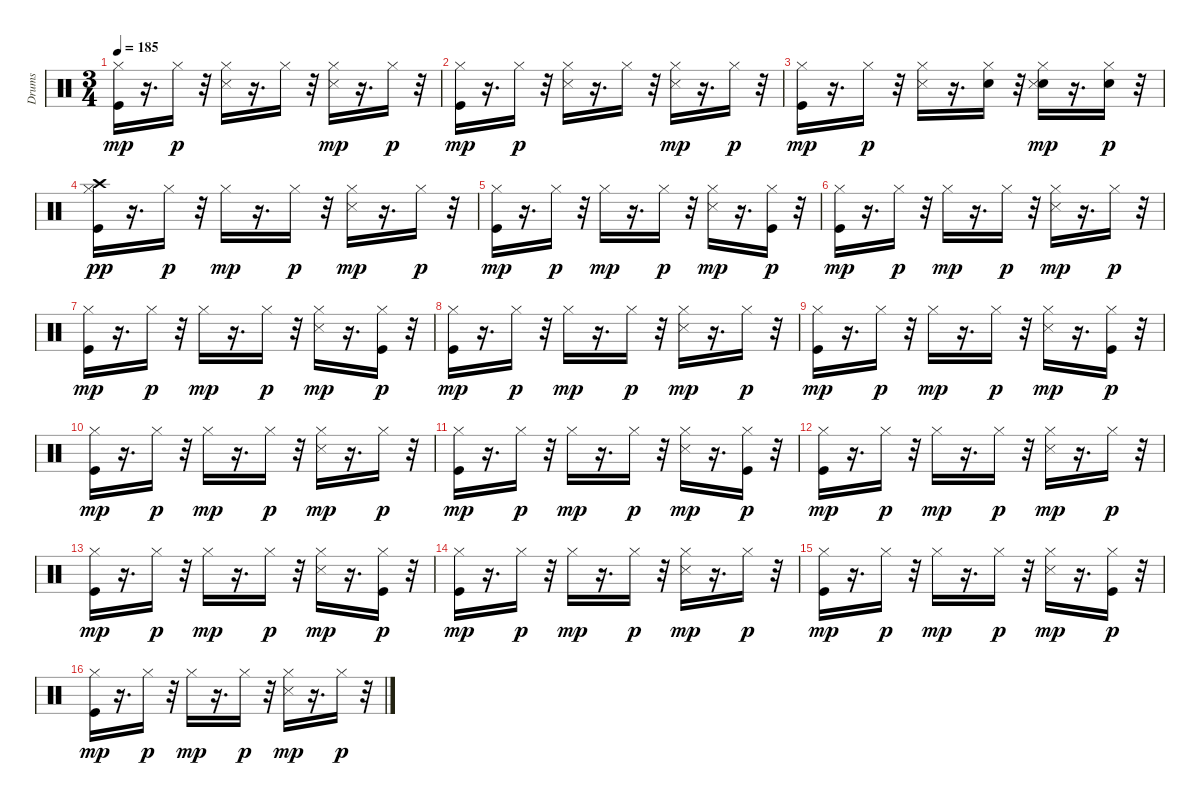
\track ("Drums " "Drums ") {instrument percussion}
\staff {score}
\articulation defaults
\ts (3 4)
\tempo 185
\clef neutral
\ks c
("Kick (hit)" "Hi-Hat (closed)").16{dy mp} r.16{d} "Hi-Hat (closed)".16{dy p} r.32 ("Hi-Hat (closed)" "Snare (side stick) 3").16 r.16{d} "Hi-Hat (closed)".16 r.32 ("Hi-Hat (closed)" "Snare (side stick) 3").16{dy mp} r.16{d} "Hi-Hat (closed)".16{dy p} r.32 |
("Kick (hit)" "Hi-Hat (closed)").16{dy mp} r.16{d} "Hi-Hat (closed)".16{dy p} r.32 ("Hi-Hat (closed)" "Snare (side stick) 3").16 r.16{d} "Hi-Hat (closed)".16 r.32 ("Hi-Hat (closed)" "Snare (side stick) 3").16{dy mp} r.16{d} "Hi-Hat (closed)".16{dy p} r.32 |
("Kick (hit)" "Hi-Hat (closed)").16{dy mp} r.16{d} "Hi-Hat (closed)".16{dy p} r.32 ("Hi-Hat (closed)" "Snare (side stick) 3").16 r.16{d} ("Snare (hit) 2" "Hi-Hat (closed)").16 r.32 ("Snare (hit) 2" "Hi-Hat (closed)" "Snare (side stick) 3").16{dy mp} r.16{d} ("Snare (hit) 2" "Hi-Hat (closed)").16{dy p} r.32 |
("Kick (hit)" "Hi-Hat (closed)" "Crash high (hit)").16{dy pp} r.16{d} "Hi-Hat (closed)".16{dy p} r.32 "Hi-Hat (closed)".16{dy mp} r.16{d} "Hi-Hat (closed)".16{dy p} r.32 ("Hi-Hat (closed)" "Snare (side stick) 3").16{dy mp} r.16{d} "Hi-Hat (closed)".16{dy p} r.32 |
("Kick (hit)" "Hi-Hat (closed)").16{dy mp} r.16{d} "Hi-Hat (closed)".16{dy p} r.32 "Hi-Hat (closed)".16{dy mp} r.16{d} "Hi-Hat (closed)".16{dy p} r.32 ("Hi-Hat (closed)" "Snare (side stick) 3").16{dy mp} r.16{d} ("Kick (hit)" "Hi-Hat (closed)").16{dy p} r.32 |
("Kick (hit)" "Hi-Hat (closed)").16{dy mp} r.16{d} "Hi-Hat (closed)".16{dy p} r.32 "Hi-Hat (closed)".16{dy mp} r.16{d} "Hi-Hat (closed)".16{dy p} r.32 ("Hi-Hat (closed)" "Snare (side stick) 3").16{dy mp} r.16{d} "Hi-Hat (closed)".16{dy p} r.32 |
("Kick (hit)" "Hi-Hat (closed)").16{dy mp} r.16{d} "Hi-Hat (closed)".16{dy p} r.32 "Hi-Hat (closed)".16{dy mp} r.16{d} "Hi-Hat (closed)".16{dy p} r.32 ("Hi-Hat (closed)" "Snare (side stick) 3").16{dy mp} r.16{d} ("Kick (hit)" "Hi-Hat (closed)").16{dy p} r.32 |
("Kick (hit)" "Hi-Hat (closed)").16{dy mp} r.16{d} "Hi-Hat (closed)".16{dy p} r.32 "Hi-Hat (closed)".16{dy mp} r.16{d} "Hi-Hat (closed)".16{dy p} r.32 ("Hi-Hat (closed)" "Snare (side stick) 3").16{dy mp} r.16{d} "Hi-Hat (closed)".16{dy p} r.32 |
("Kick (hit)" "Hi-Hat (closed)").16{dy mp} r.16{d} "Hi-Hat (closed)".16{dy p} r.32 "Hi-Hat (closed)".16{dy mp} r.16{d} "Hi-Hat (closed)".16{dy p} r.32 ("Hi-Hat (closed)" "Snare (side stick) 3").16{dy mp} r.16{d} ("Kick (hit)" "Hi-Hat (closed)").16{dy p} r.32 |
("Kick (hit)" "Hi-Hat (closed)").16{dy mp} r.16{d} "Hi-Hat (closed)".16{dy p} r.32 "Hi-Hat (closed)".16{dy mp} r.16{d} "Hi-Hat (closed)".16{dy p} r.32 ("Hi-Hat (closed)" "Snare (side stick) 3").16{dy mp} r.16{d} "Hi-Hat (closed)".16{dy p} r.32 |
("Kick (hit)" "Hi-Hat (closed)").16{dy mp} r.16{d} "Hi-Hat (closed)".16{dy p} r.32 "Hi-Hat (closed)".16{dy mp} r.16{d} "Hi-Hat (closed)".16{dy p} r.32 ("Hi-Hat (closed)" "Snare (side stick) 3").16{dy mp} r.16{d} ("Kick (hit)" "Hi-Hat (closed)").16{dy p} r.32 |
("Kick (hit)" "Hi-Hat (closed)").16{dy mp} r.16{d} "Hi-Hat (closed)".16{dy p} r.32 "Hi-Hat (closed)".16{dy mp} r.16{d} "Hi-Hat (closed)".16{dy p} r.32 ("Hi-Hat (closed)" "Snare (side stick) 3").16{dy mp} r.16{d} "Hi-Hat (closed)".16{dy p} r.32 |
("Kick (hit)" "Hi-Hat (closed)").16{dy mp} r.16{d} "Hi-Hat (closed)".16{dy p} r.32 "Hi-Hat (closed)".16{dy mp} r.16{d} "Hi-Hat (closed)".16{dy p} r.32 ("Hi-Hat (closed)" "Snare (side stick) 3").16{dy mp} r.16{d} ("Kick (hit)" "Hi-Hat (closed)").16{dy p} r.32 |
("Kick (hit)" "Hi-Hat (closed)").16{dy mp} r.16{d} "Hi-Hat (closed)".16{dy p} r.32 "Hi-Hat (closed)".16{dy mp} r.16{d} "Hi-Hat (closed)".16{dy p} r.32 ("Hi-Hat (closed)" "Snare (side stick) 3").16{dy mp} r.16{d} "Hi-Hat (closed)".16{dy p} r.32 |
("Kick (hit)" "Hi-Hat (closed)").16{dy mp} r.16{d} "Hi-Hat (closed)".16{dy p} r.32 "Hi-Hat (closed)".16{dy mp} r.16{d} "Hi-Hat (closed)".16{dy p} r.32 ("Hi-Hat (closed)" "Snare (side stick) 3").16{dy mp} r.16{d} ("Kick (hit)" "Hi-Hat (closed)").16{dy p} r.32 |
("Kick (hit)" "Hi-Hat (closed)").16{dy mp} r.16{d} "Hi-Hat (closed)".16{dy p} r.32 "Hi-Hat (closed)".16{dy mp} r.16{d} "Hi-Hat (closed)".16{dy p} r.32 ("Hi-Hat (closed)" "Snare (side stick) 3").16{dy mp} r.16{d} "Hi-Hat (closed)".16{dy p} r.32
